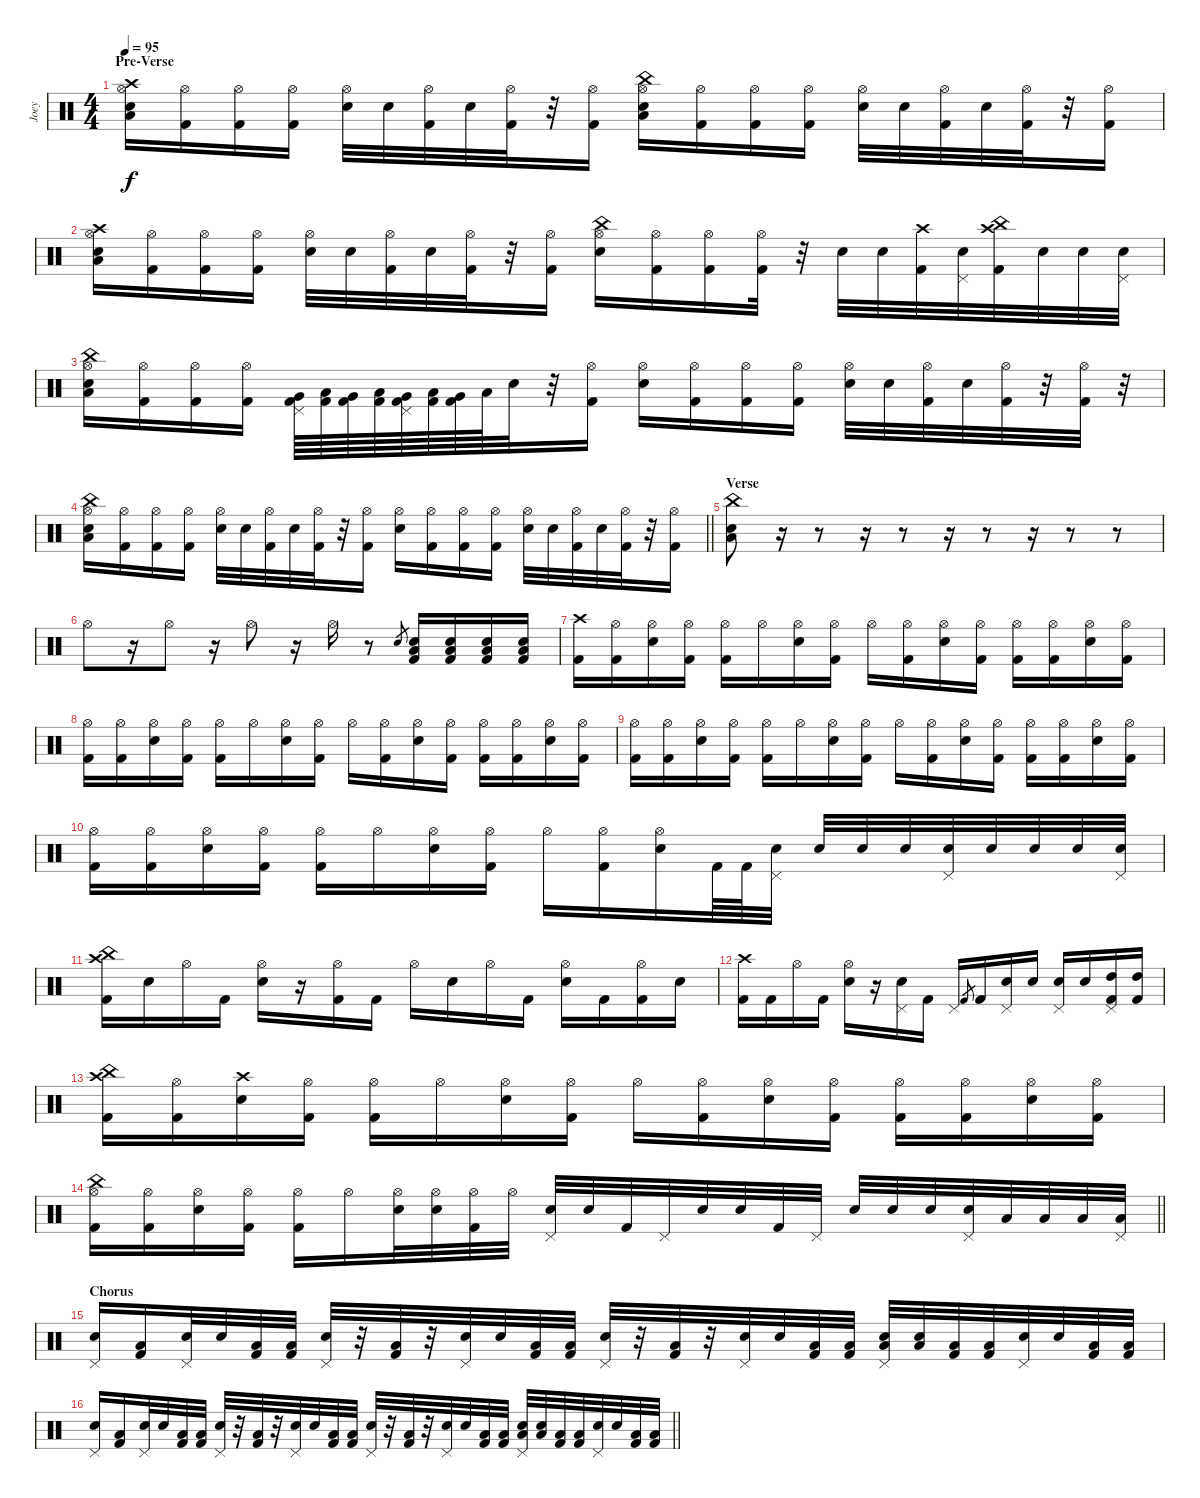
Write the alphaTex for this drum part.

\track ("Joey" "Joey") {instrument percussion}
\staff {score}
\articulation defaults
\ts (4 4)
\section ("" "Pre-Verse")
\tempo 95
\clef neutral
\ks c
("Crash high (hit)" "Hi-Hat (open)" "Low Floor Tom (hit)" "Electric Snare (hit)").16{dy f} ("Hi-Hat (open)" "Kick (hit) 2").16 ("Hi-Hat (open)" "Kick (hit) 2").16 ("Hi-Hat (open)" "Kick (hit) 2").16 ("Hi-Hat (open)" "Electric Snare (hit)").32 "Electric Snare (hit)".32 ("Hi-Hat (open)" "Kick (hit) 2").32 "Electric Snare (hit)".32 ("Hi-Hat (open)" "Kick (hit) 2").32 r.32 ("Hi-Hat (open)" "Kick (hit) 2").16 ("China (hit)" "Hi-Hat (open)" "Low Floor Tom (hit)" "Electric Snare (hit)").16 ("Hi-Hat (open)" "Kick (hit) 2").16 ("Hi-Hat (open)" "Kick (hit) 2").16 ("Hi-Hat (open)" "Kick (hit) 2").16 ("Hi-Hat (open)" "Electric Snare (hit)").32 "Electric Snare (hit)".32 ("Hi-Hat (open)" "Kick (hit) 2").32 "Electric Snare (hit)".32 ("Hi-Hat (open)" "Kick (hit) 2").32 r.32 ("Hi-Hat (open)" "Kick (hit) 2").16 |
("Crash high (hit)" "Hi-Hat (open)" "Low Floor Tom (hit)" "Electric Snare (hit)").16 ("Hi-Hat (open)" "Kick (hit) 2").16 ("Hi-Hat (open)" "Kick (hit) 2").16 ("Hi-Hat (open)" "Kick (hit) 2").16 ("Hi-Hat (open)" "Electric Snare (hit)").32 "Electric Snare (hit)".32 ("Hi-Hat (open)" "Kick (hit) 2").32 "Electric Snare (hit)".32 ("Hi-Hat (open)" "Kick (hit) 2").32 r.32 ("Hi-Hat (open)" "Kick (hit) 2").16 ("China (hit)" "Hi-Hat (open)" "Electric Snare (hit)").16 ("Hi-Hat (open)" "Kick (hit) 2").16 ("Hi-Hat (open)" "Kick (hit) 2").16 ("Hi-Hat (open)" "Kick (hit) 2").32 r.32 "Electric Snare (hit)".32 "Electric Snare (hit)".32 ("Crash high (hit)" "Kick (hit) 2").32 ("Pedal Hi-Hat (hit)" "Electric Snare (hit)").32 ("Crash high (hit)" "China (hit)" "Kick (hit) 2").32 "Electric Snare (hit)".32 "Electric Snare (hit)".32 ("Pedal Hi-Hat (hit)" "Electric Snare (hit)").32 |
("China (hit)" "Hi-Hat (open)" "Low Floor Tom (hit)" "Electric Snare (hit)").16 ("Hi-Hat (open)" "Kick (hit) 2").16 ("Hi-Hat (open)" "Kick (hit) 2").16 ("Hi-Hat (open)" "Kick (hit) 2").16 ("Kick (hit) 2" "Pedal Hi-Hat (hit)" "Very Low Tom (hit)").64 ("Kick (hit) 2" "Low Tom (hit)").64 ("Kick (hit) 2" "Very Low Tom (hit)").64 ("Kick (hit) 2" "Low Tom (hit)").64 ("Kick (hit) 2" "Pedal Hi-Hat (hit)" "Very Low Tom (hit)").64 ("Kick (hit) 2" "Low Tom (hit)").64 ("Kick (hit) 2" "Very Low Tom (hit)").64 "Low Tom (hit)".64 "Electric Snare (hit)".32 r.32 ("Hi-Hat (open)" "Kick (hit) 2").16 ("Hi-Hat (open)" "Electric Snare (hit)").16 ("Hi-Hat (open)" "Kick (hit) 2").16 ("Hi-Hat (open)" "Kick (hit) 2").16 ("Hi-Hat (open)" "Kick (hit) 2").16 ("Hi-Hat (open)" "Electric Snare (hit)").32 "Electric Snare (hit)".32 ("Hi-Hat (open)" "Kick (hit) 2").32 "Electric Snare (hit)".32 ("Hi-Hat (open)" "Kick (hit) 2").32 r.32 ("Hi-Hat (open)" "Kick (hit) 2").32 r.32 |
\barLineRight lightlight
("China (hit)" "Hi-Hat (open)" "Low Floor Tom (hit)" "Electric Snare (hit)").16 ("Hi-Hat (open)" "Kick (hit) 2").16 ("Hi-Hat (open)" "Kick (hit) 2").16 ("Hi-Hat (open)" "Kick (hit) 2").16 ("Hi-Hat (open)" "Electric Snare (hit)").32 "Electric Snare (hit)".32 ("Hi-Hat (open)" "Kick (hit) 2").32 "Electric Snare (hit)".32 ("Hi-Hat (open)" "Kick (hit) 2").32 r.32 ("Hi-Hat (open)" "Kick (hit) 2").16 ("Hi-Hat (open)" "Electric Snare (hit)").16 ("Hi-Hat (open)" "Kick (hit) 2").16 ("Hi-Hat (open)" "Kick (hit) 2").16 ("Hi-Hat (open)" "Kick (hit) 2").16 ("Hi-Hat (open)" "Electric Snare (hit)").32 "Electric Snare (hit)".32 ("Hi-Hat (open)" "Kick (hit) 2").32 "Electric Snare (hit)".32 ("Hi-Hat (open)" "Kick (hit) 2").32 r.32 ("Hi-Hat (open)" "Kick (hit) 2").16 |
\section ("" "Verse")
("China (hit)" "Low Floor Tom (hit)" "Electric Snare (hit)").8 r.16 r.8 r.16 r.8 r.16 r.8 r.16 r.8 r.8 |
"Hi-Hat (open)".8 r.16 "Hi-Hat (open)".8 r.16 "Hi-Hat (open)".8 r.16 "Hi-Hat (open)".16 r.8 "Electric Snare (hit)".8{gr} ("Kick (hit) 2" "Low Floor Tom (hit)" "Electric Snare (hit)").16 ("Kick (hit) 2" "Low Floor Tom (hit)" "Electric Snare (hit)").16 ("Kick (hit) 2" "Low Floor Tom (hit)" "Electric Snare (hit)").16 ("Kick (hit) 2" "Low Floor Tom (hit)" "Electric Snare (hit)").16 |
("Crash high (hit)" "Kick (hit) 2").16 ("Hi-Hat (open)" "Kick (hit) 2").16 ("Hi-Hat (open)" "Electric Snare (hit)").16 ("Hi-Hat (open)" "Kick (hit) 2").16 ("Hi-Hat (open)" "Kick (hit) 2").16 "Hi-Hat (open)".16 ("Hi-Hat (open)" "Electric Snare (hit)").16 ("Hi-Hat (open)" "Kick (hit) 2").16 "Hi-Hat (open)".16 ("Hi-Hat (open)" "Kick (hit) 2").16 ("Hi-Hat (open)" "Electric Snare (hit)").16 ("Hi-Hat (open)" "Kick (hit) 2").16 ("Hi-Hat (open)" "Kick (hit) 2").16 ("Hi-Hat (open)" "Kick (hit) 2").16 ("Hi-Hat (open)" "Electric Snare (hit)").16 ("Hi-Hat (open)" "Kick (hit) 2").16 |
("Hi-Hat (open)" "Kick (hit) 2").16 ("Hi-Hat (open)" "Kick (hit) 2").16 ("Hi-Hat (open)" "Electric Snare (hit)").16 ("Hi-Hat (open)" "Kick (hit) 2").16 ("Hi-Hat (open)" "Kick (hit) 2").16 "Hi-Hat (open)".16 ("Hi-Hat (open)" "Electric Snare (hit)").16 ("Hi-Hat (open)" "Kick (hit) 2").16 "Hi-Hat (open)".16 ("Hi-Hat (open)" "Kick (hit) 2").16 ("Hi-Hat (open)" "Electric Snare (hit)").16 ("Hi-Hat (open)" "Kick (hit) 2").16 ("Hi-Hat (open)" "Kick (hit) 2").16 ("Hi-Hat (open)" "Kick (hit) 2").16 ("Hi-Hat (open)" "Electric Snare (hit)").16 ("Hi-Hat (open)" "Kick (hit) 2").16 |
("Hi-Hat (open)" "Kick (hit) 2").16 ("Hi-Hat (open)" "Kick (hit) 2").16 ("Hi-Hat (open)" "Electric Snare (hit)").16 ("Hi-Hat (open)" "Kick (hit) 2").16 ("Hi-Hat (open)" "Kick (hit) 2").16 "Hi-Hat (open)".16 ("Hi-Hat (open)" "Electric Snare (hit)").16 ("Hi-Hat (open)" "Kick (hit) 2").16 "Hi-Hat (open)".16 ("Hi-Hat (open)" "Kick (hit) 2").16 ("Hi-Hat (open)" "Electric Snare (hit)").16 ("Hi-Hat (open)" "Kick (hit) 2").16 ("Hi-Hat (open)" "Kick (hit) 2").16 ("Hi-Hat (open)" "Kick (hit) 2").16 ("Hi-Hat (open)" "Electric Snare (hit)").16 ("Hi-Hat (open)" "Kick (hit) 2").16 |
("Hi-Hat (open)" "Kick (hit) 2").16 ("Hi-Hat (open)" "Kick (hit) 2").16 ("Hi-Hat (open)" "Electric Snare (hit)").16 ("Hi-Hat (open)" "Kick (hit) 2").16 ("Hi-Hat (open)" "Kick (hit) 2").16 "Hi-Hat (open)".16 ("Hi-Hat (open)" "Electric Snare (hit)").16 ("Hi-Hat (open)" "Kick (hit) 2").16 "Hi-Hat (open)".16 ("Hi-Hat (open)" "Kick (hit) 2").16 ("Hi-Hat (open)" "Electric Snare (hit)").16 "Kick (hit) 2".64 "Kick (hit) 2".64 ("Pedal Hi-Hat (hit)" "Electric Snare (hit)").32 "Electric Snare (hit)".32 "Electric Snare (hit)".32 "Electric Snare (hit)".32 ("Pedal Hi-Hat (hit)" "Electric Snare (hit)").32 "Electric Snare (hit)".32 "Electric Snare (hit)".32 "Electric Snare (hit)".32 ("Pedal Hi-Hat (hit)" "Electric Snare (hit)").32 |
("Crash high (hit)" "China (hit)" "Kick (hit) 2").16 "Electric Snare (hit)".16 "Hi-Hat (open)".16 "Kick (hit) 2".16 ("Hi-Hat (open)" "Electric Snare (hit)").16 r.16 ("Hi-Hat (open)" "Kick (hit) 2").16 "Kick (hit) 2".16 "Hi-Hat (open)".16 "Electric Snare (hit)".16 "Hi-Hat (open)".16 "Kick (hit) 2".16 ("Hi-Hat (open)" "Electric Snare (hit)").16 "Kick (hit) 2".16 ("Hi-Hat (open)" "Kick (hit) 2").16 "Electric Snare (hit)".16 |
("Crash high (hit)" "Kick (hit) 2").16 "Kick (hit) 2".16 "Hi-Hat (open)".16 "Kick (hit) 2".16 ("Hi-Hat (open)" "Electric Snare (hit)").16 r.16 ("Pedal Hi-Hat (hit)" "Electric Snare (hit)").16 "Kick (hit) 2".16 "Pedal Hi-Hat (hit)".16 "Kick (hit) 2".8{gr} "Kick (hit) 2".16 ("Pedal Hi-Hat (hit)" "Electric Snare (hit)").16 "Electric Snare (hit)".16 ("Pedal Hi-Hat (hit)" "Electric Snare (hit)").16 "Electric Snare (hit)".16 ("Pedal Hi-Hat (hit)" "High Tom (hit)" "Kick (hit) 2").16 ("High Tom (hit)" "Kick (hit) 2").16 |
("China (hit)" "Crash high (hit)" "Kick (hit) 2").16 ("Hi-Hat (open)" "Kick (hit) 2").16 ("Crash high (hit)" "Electric Snare (hit)").16 ("Hi-Hat (open)" "Kick (hit) 2").16 ("Hi-Hat (open)" "Kick (hit) 2").16 "Hi-Hat (open)".16 ("Hi-Hat (open)" "Electric Snare (hit)").16 ("Hi-Hat (open)" "Kick (hit) 2").16 "Hi-Hat (open)".16 ("Hi-Hat (open)" "Kick (hit) 2").16 ("Hi-Hat (open)" "Electric Snare (hit)").16 ("Hi-Hat (open)" "Kick (hit) 2").16 ("Hi-Hat (open)" "Kick (hit) 2").16 ("Hi-Hat (open)" "Kick (hit) 2").16 ("Hi-Hat (open)" "Electric Snare (hit)").16 ("Hi-Hat (open)" "Kick (hit) 2").16 |
\barLineRight lightlight
("China (hit)" "Hi-Hat (open)" "Kick (hit) 2").16 ("Hi-Hat (open)" "Kick (hit) 2").16 ("Hi-Hat (open)" "Electric Snare (hit)").16 ("Hi-Hat (open)" "Kick (hit) 2").16 ("Hi-Hat (open)" "Kick (hit) 2").16 "Hi-Hat (open)".16 ("Hi-Hat (open)" "Electric Snare (hit)").32 ("Hi-Hat (open)" "Electric Snare (hit)").32 ("Hi-Hat (open)" "Kick (hit) 2").32 "Hi-Hat (open)".32 ("Pedal Hi-Hat (hit)" "Electric Snare (hit)").32 "Electric Snare (hit)".32 "Kick (hit) 2".32 "Pedal Hi-Hat (hit)".32 "Electric Snare (hit)".32 "Electric Snare (hit)".32 "Kick (hit) 2".32 "Pedal Hi-Hat (hit)".32 "Electric Snare (hit)".32 "Electric Snare (hit)".32 "Electric Snare (hit)".32 ("Pedal Hi-Hat (hit)" "Electric Snare (hit)").32 "Low Tom (hit)".32 "Low Tom (hit)".32 "Low Tom (hit)".32 ("Pedal Hi-Hat (hit)" "Low Tom (hit)").32 |
\section ("" "Chorus")
("Pedal Hi-Hat (hit)" "Electric Snare (hit)").16 ("Low Floor Tom (hit)" "Kick (hit) 2").16 ("Pedal Hi-Hat (hit)" "Electric Snare (hit)").32 "Electric Snare (hit)".32 ("Low Floor Tom (hit)" "Kick (hit) 2").32 ("Low Floor Tom (hit)" "Kick (hit) 2").32 ("Pedal Hi-Hat (hit)" "Electric Snare (hit)").32 r.32 ("Low Floor Tom (hit)" "Kick (hit) 2").32 r.32 ("Pedal Hi-Hat (hit)" "Electric Snare (hit)").32 "Electric Snare (hit)".32 ("Low Floor Tom (hit)" "Kick (hit) 2").32 ("Low Floor Tom (hit)" "Kick (hit) 2").32 ("Pedal Hi-Hat (hit)" "Electric Snare (hit)").32 r.32 ("Low Floor Tom (hit)" "Kick (hit) 2").32 r.32 ("Pedal Hi-Hat (hit)" "Electric Snare (hit)").32 "Electric Snare (hit)".32 ("Low Floor Tom (hit)" "Kick (hit) 2").32 ("Low Floor Tom (hit)" "Kick (hit) 2").32 ("Pedal Hi-Hat (hit)" "Low Floor Tom (hit)" "Electric Snare (hit)").32 ("Low Floor Tom (hit)" "Electric Snare (hit)").32 ("Low Floor Tom (hit)" "Kick (hit) 2").32 ("Low Floor Tom (hit)" "Kick (hit) 2").32 ("Pedal Hi-Hat (hit)" "Electric Snare (hit)").32 "Electric Snare (hit)".32 ("Low Floor Tom (hit)" "Kick (hit) 2").32 ("Low Floor Tom (hit)" "Kick (hit) 2").32 |
\barLineRight lightlight
("Pedal Hi-Hat (hit)" "Electric Snare (hit)").16 ("Low Floor Tom (hit)" "Kick (hit) 2").16 ("Pedal Hi-Hat (hit)" "Electric Snare (hit)").32 "Electric Snare (hit)".32 ("Low Floor Tom (hit)" "Kick (hit) 2").32 ("Low Floor Tom (hit)" "Kick (hit) 2").32 ("Pedal Hi-Hat (hit)" "Electric Snare (hit)").32 r.32 ("Low Floor Tom (hit)" "Kick (hit) 2").32 r.32 ("Pedal Hi-Hat (hit)" "Electric Snare (hit)").32 "Electric Snare (hit)".32 ("Low Floor Tom (hit)" "Kick (hit) 2").32 ("Low Floor Tom (hit)" "Kick (hit) 2").32 ("Pedal Hi-Hat (hit)" "Electric Snare (hit)").32 r.32 ("Low Floor Tom (hit)" "Kick (hit) 2").32 r.32 ("Pedal Hi-Hat (hit)" "Electric Snare (hit)").32 "Electric Snare (hit)".32 ("Low Floor Tom (hit)" "Kick (hit) 2").32 ("Low Floor Tom (hit)" "Kick (hit) 2").32 ("Pedal Hi-Hat (hit)" "Low Floor Tom (hit)" "Electric Snare (hit)").32 ("Low Floor Tom (hit)" "Electric Snare (hit)").32 ("Low Floor Tom (hit)" "Kick (hit) 2").32 ("Low Floor Tom (hit)" "Kick (hit) 2").32 ("Pedal Hi-Hat (hit)" "Electric Snare (hit)").32 "Electric Snare (hit)".32 ("Low Floor Tom (hit)" "Kick (hit) 2").32 ("Low Floor Tom (hit)" "Kick (hit) 2").32
